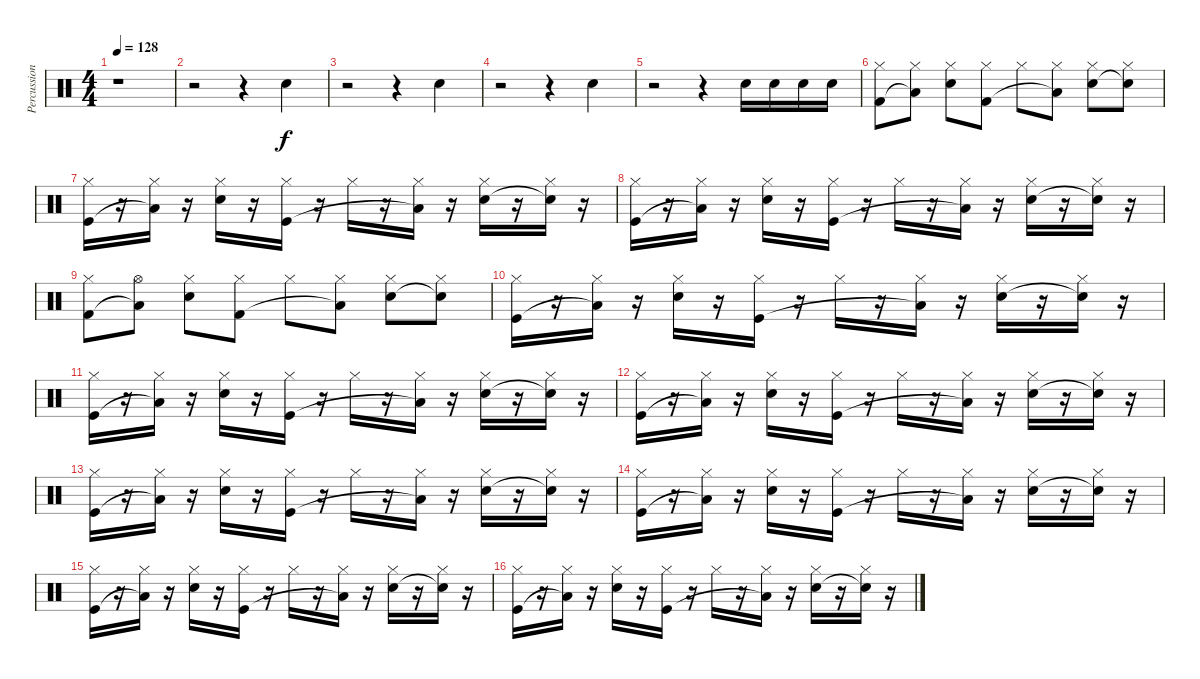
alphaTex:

\track ("Percussion" "Percussion") {instrument percussion}
\staff {score}
\articulation defaults
\ts (4 4)
\tempo 128
\clef neutral
\ks c
r.1{dy f} |
r.2 r.4 "Snare (hit) 2".4 |
r.2 r.4 "Snare (hit) 2".4 |
r.2 r.4 "Snare (hit) 2".4 |
r.2 r.4 "Snare (hit) 2".16 "Snare (hit) 2".16 "Snare (hit) 2".16 "Snare (hit) 2".16 |
("Hi-Hat (closed)" "Kick (hit) 2").8 ("Hi-Hat (closed)" "Low Floor Tom (hit)"{t}).8 ("Hi-Hat (closed)" "Snare (hit) 2").8 ("Hi-Hat (closed)" "Kick (hit) 2").8 "Hi-Hat (closed)".8 ("Hi-Hat (closed)" "Low Floor Tom (hit)"{t}).8 ("Hi-Hat (closed)" "Snare (hit) 2").8 ("Hi-Hat (closed)" "Electric Snare (hit)"{t}).8 |
("Hi-Hat (closed)" "Kick (hit)").16 r.16 ("Hi-Hat (closed)" "Low Floor Tom (hit)"{t}).16 r.16 ("Hi-Hat (closed)" "Snare (hit) 2").16 r.16 ("Hi-Hat (closed)" "Kick (hit)").16 r.16 "Hi-Hat (closed)".16 r.16 ("Hi-Hat (closed)" "Low Floor Tom (hit)"{t}).16 r.16 ("Hi-Hat (closed)" "Snare (hit) 2").16 r.16 ("Hi-Hat (closed)" "Electric Snare (hit)"{t}).16 r.16 |
("Hi-Hat (closed)" "Kick (hit)").16 r.16 ("Hi-Hat (closed)" "Low Floor Tom (hit)"{t}).16 r.16 ("Hi-Hat (closed)" "Snare (hit) 2").16 r.16 ("Hi-Hat (closed)" "Kick (hit)").16 r.16 "Hi-Hat (closed)".16 r.16 ("Hi-Hat (closed)" "Low Floor Tom (hit)"{t}).16 r.16 ("Hi-Hat (closed)" "Snare (hit) 2").16 r.16 ("Hi-Hat (closed)" "Electric Snare (hit)"{t}).16 r.16 |
("Hi-Hat (closed)" "Kick (hit) 2").8 ("Hi-Hat (open)" "Low Floor Tom (hit)"{t}).8 ("Hi-Hat (closed)" "Snare (hit) 2").8 ("Hi-Hat (closed)" "Kick (hit) 2").8 "Hi-Hat (closed)".8 ("Hi-Hat (closed)" "Low Floor Tom (hit)"{t}).8 ("Hi-Hat (closed)" "Snare (hit) 2").8 ("Hi-Hat (closed)" "Electric Snare (hit)"{t}).8 |
("Hi-Hat (closed)" "Kick (hit)").16 r.16 ("Hi-Hat (closed)" "Low Floor Tom (hit)"{t}).16 r.16 ("Hi-Hat (closed)" "Snare (hit) 2").16 r.16 ("Hi-Hat (closed)" "Kick (hit)").16 r.16 "Hi-Hat (closed)".16 r.16 ("Hi-Hat (closed)" "Low Floor Tom (hit)"{t}).16 r.16 ("Hi-Hat (closed)" "Snare (hit) 2").16 r.16 ("Hi-Hat (closed)" "Electric Snare (hit)"{t}).16 r.16 |
("Hi-Hat (closed)" "Kick (hit)").16 r.16 ("Hi-Hat (closed)" "Low Floor Tom (hit)"{t}).16 r.16 ("Hi-Hat (closed)" "Snare (hit) 2").16 r.16 ("Hi-Hat (closed)" "Kick (hit)").16 r.16 "Hi-Hat (closed)".16 r.16 ("Hi-Hat (closed)" "Low Floor Tom (hit)"{t}).16 r.16 ("Hi-Hat (closed)" "Snare (hit) 2").16 r.16 ("Hi-Hat (closed)" "Electric Snare (hit)"{t}).16 r.16 |
("Hi-Hat (closed)" "Kick (hit)").16 r.16 ("Hi-Hat (closed)" "Low Floor Tom (hit)"{t}).16 r.16 ("Hi-Hat (closed)" "Snare (hit) 2").16 r.16 ("Hi-Hat (closed)" "Kick (hit)").16 r.16 "Hi-Hat (closed)".16 r.16 ("Hi-Hat (closed)" "Low Floor Tom (hit)"{t}).16 r.16 ("Hi-Hat (closed)" "Snare (hit) 2").16 r.16 ("Hi-Hat (closed)" "Electric Snare (hit)"{t}).16 r.16 |
("Hi-Hat (closed)" "Kick (hit)").16 r.16 ("Hi-Hat (closed)" "Low Floor Tom (hit)"{t}).16 r.16 ("Hi-Hat (closed)" "Snare (hit) 2").16 r.16 ("Hi-Hat (closed)" "Kick (hit)").16 r.16 "Hi-Hat (closed)".16 r.16 ("Hi-Hat (closed)" "Low Floor Tom (hit)"{t}).16 r.16 ("Hi-Hat (closed)" "Snare (hit) 2").16 r.16 ("Hi-Hat (closed)" "Electric Snare (hit)"{t}).16 r.16 |
("Hi-Hat (closed)" "Kick (hit)").16 r.16 ("Hi-Hat (closed)" "Low Floor Tom (hit)"{t}).16 r.16 ("Hi-Hat (closed)" "Snare (hit) 2").16 r.16 ("Hi-Hat (closed)" "Kick (hit)").16 r.16 "Hi-Hat (closed)".16 r.16 ("Hi-Hat (closed)" "Low Floor Tom (hit)"{t}).16 r.16 ("Hi-Hat (closed)" "Snare (hit) 2").16 r.16 ("Hi-Hat (closed)" "Electric Snare (hit)"{t}).16 r.16 |
("Hi-Hat (closed)" "Kick (hit)").16 r.16 ("Hi-Hat (closed)" "Low Floor Tom (hit)"{t}).16 r.16 ("Hi-Hat (closed)" "Snare (hit) 2").16 r.16 ("Hi-Hat (closed)" "Kick (hit)").16 r.16 "Hi-Hat (closed)".16 r.16 ("Hi-Hat (closed)" "Low Floor Tom (hit)"{t}).16 r.16 ("Hi-Hat (closed)" "Snare (hit) 2").16 r.16 ("Hi-Hat (closed)" "Electric Snare (hit)"{t}).16 r.16 |
("Hi-Hat (closed)" "Kick (hit)").16 r.16 ("Hi-Hat (closed)" "Low Floor Tom (hit)"{t}).16 r.16 ("Hi-Hat (closed)" "Snare (hit) 2").16 r.16 ("Hi-Hat (closed)" "Kick (hit)").16 r.16 "Hi-Hat (closed)".16 r.16 ("Hi-Hat (closed)" "Low Floor Tom (hit)"{t}).16 r.16 ("Hi-Hat (closed)" "Snare (hit) 2").16 r.16 ("Hi-Hat (closed)" "Electric Snare (hit)"{t}).16 r.16
